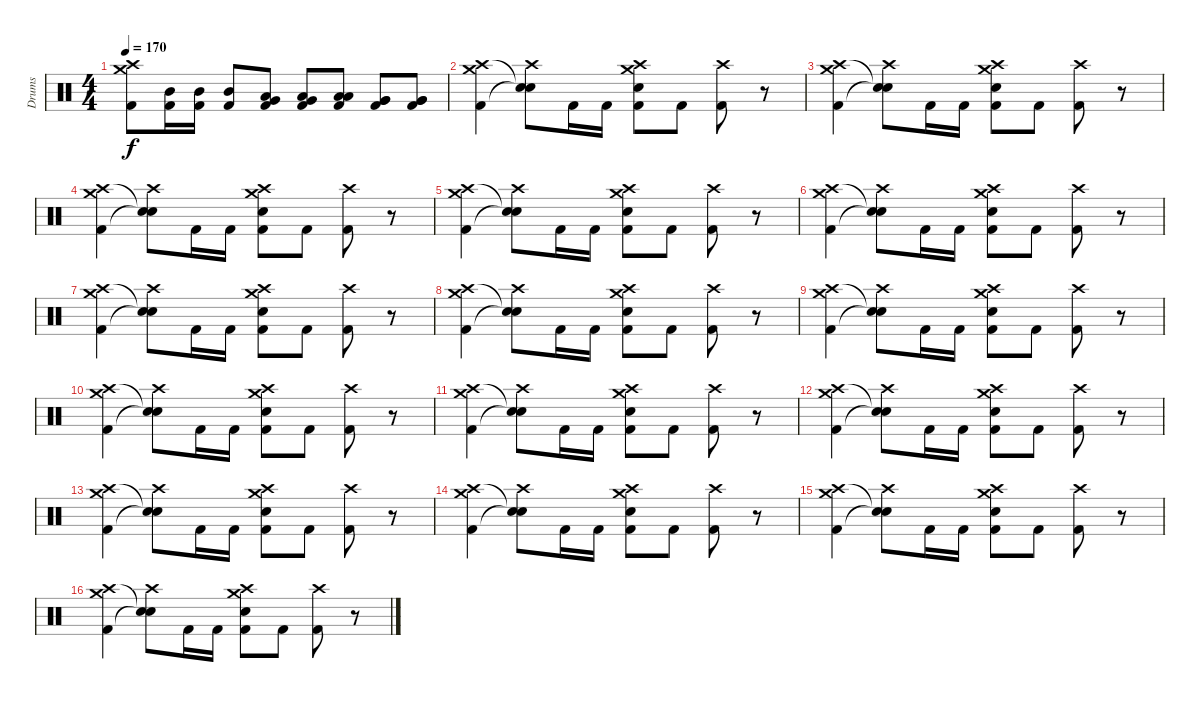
\track ("Drums" "Drums") {instrument percussion}
\staff {score}
\articulation defaults
\ts (4 4)
\tempo 170
\clef neutral
\ks c
("Crash medium (hit)" "Crash high (hit)" "Kick (hit) 2").8{dy f} ("Mid Tom (hit)" "Kick (hit) 2").16 ("Mid Tom (hit)" "Kick (hit) 2").16 ("Mid Tom (hit)" "Kick (hit) 2").8 ("Low Tom (hit)" "Very Low Tom (hit)" "Kick (hit) 2").8 ("Low Tom (hit)" "Very Low Tom (hit)" "Kick (hit) 2").8 ("Low Tom (hit)" "Low Tom (hit)" "Kick (hit) 2").8 ("Very Low Tom (hit)" "Very Low Tom (hit)" "Kick (hit) 2").8 ("Very Low Tom (hit)" "Very Low Tom (hit)" "Kick (hit) 2").8 |
("Crash medium (hit)" "Crash high (hit)" "Kick (hit) 2").4 ("Crash high (hit)" "Snare (hit)"{t} "Snare (hit)"{t}).8 "Kick (hit) 2".16 "Kick (hit) 2".16 ("Crash high (hit)" "Snare (hit) 2" "Crash medium (hit)" "Kick (hit) 2").8 "Kick (hit) 2".8 ("Crash high (hit)" "Kick (hit) 2").8 r.8 |
("Crash medium (hit)" "Crash high (hit)" "Kick (hit) 2").4 ("Crash high (hit)" "Snare (hit)"{t} "Snare (hit)"{t}).8 "Kick (hit) 2".16 "Kick (hit) 2".16 ("Crash high (hit)" "Snare (hit) 2" "Crash medium (hit)" "Kick (hit) 2").8 "Kick (hit) 2".8 ("Crash high (hit)" "Kick (hit) 2").8 r.8 |
("Crash medium (hit)" "Crash high (hit)" "Kick (hit) 2").4 ("Crash high (hit)" "Snare (hit)"{t} "Snare (hit)"{t}).8 "Kick (hit) 2".16 "Kick (hit) 2".16 ("Crash high (hit)" "Snare (hit) 2" "Crash medium (hit)" "Kick (hit) 2").8 "Kick (hit) 2".8 ("Crash high (hit)" "Kick (hit) 2").8 r.8 |
("Crash medium (hit)" "Crash high (hit)" "Kick (hit) 2").4 ("Crash high (hit)" "Snare (hit)"{t} "Snare (hit)"{t}).8 "Kick (hit) 2".16 "Kick (hit) 2".16 ("Crash high (hit)" "Snare (hit) 2" "Crash medium (hit)" "Kick (hit) 2").8 "Kick (hit) 2".8 ("Crash high (hit)" "Kick (hit) 2").8 r.8 |
("Crash medium (hit)" "Crash high (hit)" "Kick (hit) 2").4 ("Crash high (hit)" "Snare (hit)"{t} "Snare (hit)"{t}).8 "Kick (hit) 2".16 "Kick (hit) 2".16 ("Crash high (hit)" "Snare (hit) 2" "Crash medium (hit)" "Kick (hit) 2").8 "Kick (hit) 2".8 ("Crash high (hit)" "Kick (hit) 2").8 r.8 |
("Crash medium (hit)" "Crash high (hit)" "Kick (hit) 2").4 ("Crash high (hit)" "Snare (hit)"{t} "Snare (hit)"{t}).8 "Kick (hit) 2".16 "Kick (hit) 2".16 ("Crash high (hit)" "Snare (hit) 2" "Crash medium (hit)" "Kick (hit) 2").8 "Kick (hit) 2".8 ("Crash high (hit)" "Kick (hit) 2").8 r.8 |
("Crash medium (hit)" "Crash high (hit)" "Kick (hit) 2").4 ("Crash high (hit)" "Snare (hit)"{t} "Snare (hit)"{t}).8 "Kick (hit) 2".16 "Kick (hit) 2".16 ("Crash high (hit)" "Snare (hit) 2" "Crash medium (hit)" "Kick (hit) 2").8 "Kick (hit) 2".8 ("Crash high (hit)" "Kick (hit) 2").8 r.8 |
("Crash medium (hit)" "Crash high (hit)" "Kick (hit) 2").4 ("Crash high (hit)" "Snare (hit)"{t} "Snare (hit)"{t}).8 "Kick (hit) 2".16 "Kick (hit) 2".16 ("Crash high (hit)" "Snare (hit) 2" "Crash medium (hit)" "Kick (hit) 2").8 "Kick (hit) 2".8 ("Crash high (hit)" "Kick (hit) 2").8 r.8 |
("Crash medium (hit)" "Crash high (hit)" "Kick (hit) 2").4 ("Crash high (hit)" "Snare (hit)"{t} "Snare (hit)"{t}).8 "Kick (hit) 2".16 "Kick (hit) 2".16 ("Crash high (hit)" "Snare (hit) 2" "Crash medium (hit)" "Kick (hit) 2").8 "Kick (hit) 2".8 ("Crash high (hit)" "Kick (hit) 2").8 r.8 |
("Crash medium (hit)" "Crash high (hit)" "Kick (hit) 2").4 ("Crash high (hit)" "Snare (hit)"{t} "Snare (hit)"{t}).8 "Kick (hit) 2".16 "Kick (hit) 2".16 ("Crash high (hit)" "Snare (hit) 2" "Crash medium (hit)" "Kick (hit) 2").8 "Kick (hit) 2".8 ("Crash high (hit)" "Kick (hit) 2").8 r.8 |
("Crash medium (hit)" "Crash high (hit)" "Kick (hit) 2").4 ("Crash high (hit)" "Snare (hit)"{t} "Snare (hit)"{t}).8 "Kick (hit) 2".16 "Kick (hit) 2".16 ("Crash high (hit)" "Snare (hit) 2" "Crash medium (hit)" "Kick (hit) 2").8 "Kick (hit) 2".8 ("Crash high (hit)" "Kick (hit) 2").8 r.8 |
("Crash medium (hit)" "Crash high (hit)" "Kick (hit) 2").4 ("Crash high (hit)" "Snare (hit)"{t} "Snare (hit)"{t}).8 "Kick (hit) 2".16 "Kick (hit) 2".16 ("Crash high (hit)" "Snare (hit) 2" "Crash medium (hit)" "Kick (hit) 2").8 "Kick (hit) 2".8 ("Crash high (hit)" "Kick (hit) 2").8 r.8 |
("Crash medium (hit)" "Crash high (hit)" "Kick (hit) 2").4 ("Crash high (hit)" "Snare (hit)"{t} "Snare (hit)"{t}).8 "Kick (hit) 2".16 "Kick (hit) 2".16 ("Crash high (hit)" "Snare (hit) 2" "Crash medium (hit)" "Kick (hit) 2").8 "Kick (hit) 2".8 ("Crash high (hit)" "Kick (hit) 2").8 r.8 |
("Crash medium (hit)" "Crash high (hit)" "Kick (hit) 2").4 ("Crash high (hit)" "Snare (hit)"{t} "Snare (hit)"{t}).8 "Kick (hit) 2".16 "Kick (hit) 2".16 ("Crash high (hit)" "Snare (hit) 2" "Crash medium (hit)" "Kick (hit) 2").8 "Kick (hit) 2".8 ("Crash high (hit)" "Kick (hit) 2").8 r.8 |
("Crash medium (hit)" "Crash high (hit)" "Kick (hit) 2").4 ("Crash high (hit)" "Snare (hit)"{t} "Snare (hit)"{t}).8 "Kick (hit) 2".16 "Kick (hit) 2".16 ("Crash high (hit)" "Snare (hit) 2" "Crash medium (hit)" "Kick (hit) 2").8 "Kick (hit) 2".8 ("Crash high (hit)" "Kick (hit) 2").8 r.8
